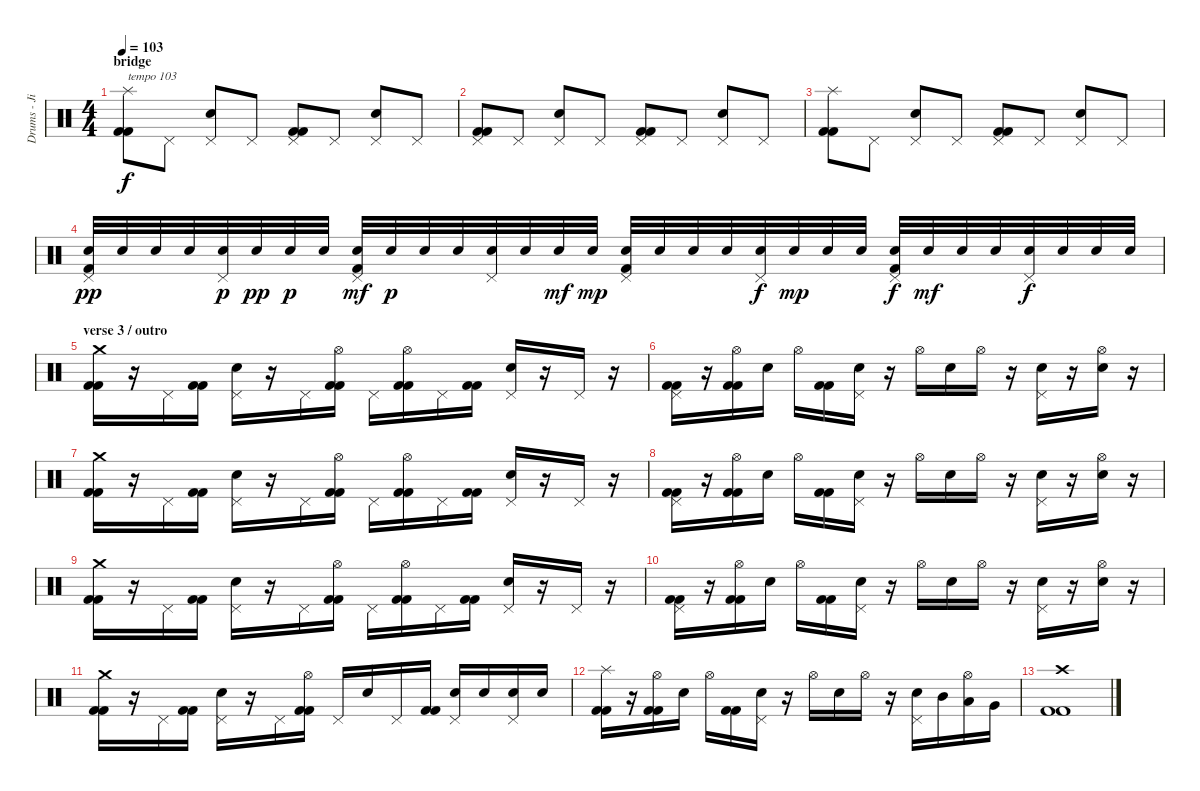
\track ("Drums - Jimmy" "Drums - Ji") {instrument percussion}
\staff {score}
\articulation defaults
\ts (4 4)
\section ("" "bridge")
\tempo 103
\clef neutral
\ks c
("Splash (hit)" "Kick (hit) 2" "Kick (hit) 2").8{txt "tempo 103" dy f} "Pedal Hi-Hat (hit)".8 ("Pedal Hi-Hat (hit)" "Electric Snare (hit)").8 "Pedal Hi-Hat (hit)".8 ("Pedal Hi-Hat (hit)" "Kick (hit) 2" "Kick (hit) 2").8 "Pedal Hi-Hat (hit)".8 ("Pedal Hi-Hat (hit)" "Electric Snare (hit)").8 "Pedal Hi-Hat (hit)".8 |
("Pedal Hi-Hat (hit)" "Kick (hit) 2" "Kick (hit) 2").8 "Pedal Hi-Hat (hit)".8 ("Pedal Hi-Hat (hit)" "Electric Snare (hit)").8 "Pedal Hi-Hat (hit)".8 ("Pedal Hi-Hat (hit)" "Kick (hit) 2" "Kick (hit) 2").8 "Pedal Hi-Hat (hit)".8 ("Pedal Hi-Hat (hit)" "Electric Snare (hit)").8 "Pedal Hi-Hat (hit)".8 |
("Splash (hit)" "Kick (hit) 2" "Kick (hit) 2").8 "Pedal Hi-Hat (hit)".8 ("Pedal Hi-Hat (hit)" "Electric Snare (hit)").8 "Pedal Hi-Hat (hit)".8 ("Pedal Hi-Hat (hit)" "Kick (hit) 2" "Kick (hit) 2").8 "Pedal Hi-Hat (hit)".8 ("Pedal Hi-Hat (hit)" "Electric Snare (hit)").8 "Pedal Hi-Hat (hit)".8 |
("Pedal Hi-Hat (hit)" "Electric Snare (hit)" "Kick (hit) 2").32{dy pp} "Electric Snare (hit)".32 "Electric Snare (hit)".32 "Electric Snare (hit)".32 ("Pedal Hi-Hat (hit)" "Electric Snare (hit)").32{dy p} "Electric Snare (hit)".32{dy pp} "Electric Snare (hit)".32{dy p} "Electric Snare (hit)".32 ("Pedal Hi-Hat (hit)" "Electric Snare (hit)" "Kick (hit) 2").32{dy mf} "Electric Snare (hit)".32{dy p} "Electric Snare (hit)".32 "Electric Snare (hit)".32 ("Pedal Hi-Hat (hit)" "Electric Snare (hit)").32 "Electric Snare (hit)".32 "Electric Snare (hit)".32{dy mf} "Electric Snare (hit)".32{dy mp} ("Pedal Hi-Hat (hit)" "Electric Snare (hit)" "Kick (hit) 2").32 "Electric Snare (hit)".32 "Electric Snare (hit)".32 "Electric Snare (hit)".32 ("Pedal Hi-Hat (hit)" "Electric Snare (hit)").32{dy f} "Electric Snare (hit)".32{dy mp} "Electric Snare (hit)".32 "Electric Snare (hit)".32 ("Pedal Hi-Hat (hit)" "Electric Snare (hit)" "Kick (hit) 2").32{dy f} "Electric Snare (hit)".32{dy mf} "Electric Snare (hit)".32 "Electric Snare (hit)".32 ("Pedal Hi-Hat (hit)" "Electric Snare (hit)").32{dy f} "Electric Snare (hit)".32 "Electric Snare (hit)".32 "Electric Snare (hit)".32 |
\section ("" "verse 3 / outro")
("Crash medium (hit)" "Kick (hit) 2" "Kick (hit) 2").16 r.16 "Pedal Hi-Hat (hit)".16 ("Kick (hit) 2" "Kick (hit) 2").16 ("Pedal Hi-Hat (hit)" "Electric Snare (hit)").16 r.16 "Pedal Hi-Hat (hit)".16 ("Hi-Hat (open)" "Kick (hit) 2" "Kick (hit) 2").16 "Pedal Hi-Hat (hit)".16 ("Hi-Hat (open)" "Kick (hit) 2" "Kick (hit) 2").16 "Pedal Hi-Hat (hit)".16 ("Kick (hit) 2" "Kick (hit) 2").16 ("Pedal Hi-Hat (hit)" "Electric Snare (hit)").16 r.16 "Pedal Hi-Hat (hit)".16 r.16 |
("Pedal Hi-Hat (hit)" "Kick (hit) 2" "Kick (hit) 2").16 r.16 ("Hi-Hat (open)" "Kick (hit) 2" "Kick (hit) 2").16 "Electric Snare (hit)".16 "Hi-Hat (open)".16 ("Kick (hit) 2" "Kick (hit) 2").16 ("Pedal Hi-Hat (hit)" "Electric Snare (hit)").16 r.16 "Hi-Hat (open)".16 "Electric Snare (hit)".16 "Hi-Hat (open)".16 r.16 ("Pedal Hi-Hat (hit)" "Electric Snare (hit)").16 r.16 ("Hi-Hat (open)" "Electric Snare (hit)").16 r.16 |
("Crash medium (hit)" "Kick (hit) 2" "Kick (hit) 2").16 r.16 "Pedal Hi-Hat (hit)".16 ("Kick (hit) 2" "Kick (hit) 2").16 ("Pedal Hi-Hat (hit)" "Electric Snare (hit)").16 r.16 "Pedal Hi-Hat (hit)".16 ("Hi-Hat (open)" "Kick (hit) 2" "Kick (hit) 2").16 "Pedal Hi-Hat (hit)".16 ("Hi-Hat (open)" "Kick (hit) 2" "Kick (hit) 2").16 "Pedal Hi-Hat (hit)".16 ("Kick (hit) 2" "Kick (hit) 2").16 ("Pedal Hi-Hat (hit)" "Electric Snare (hit)").16 r.16 "Pedal Hi-Hat (hit)".16 r.16 |
("Pedal Hi-Hat (hit)" "Kick (hit) 2" "Kick (hit) 2").16 r.16 ("Hi-Hat (open)" "Kick (hit) 2" "Kick (hit) 2").16 "Electric Snare (hit)".16 "Hi-Hat (open)".16 ("Kick (hit) 2" "Kick (hit) 2").16 ("Pedal Hi-Hat (hit)" "Electric Snare (hit)").16 r.16 "Hi-Hat (open)".16 "Electric Snare (hit)".16 "Hi-Hat (open)".16 r.16 ("Pedal Hi-Hat (hit)" "Electric Snare (hit)").16 r.16 ("Hi-Hat (open)" "Electric Snare (hit)").16 r.16 |
("Crash medium (hit)" "Kick (hit) 2" "Kick (hit) 2").16 r.16 "Pedal Hi-Hat (hit)".16 ("Kick (hit) 2" "Kick (hit) 2").16 ("Pedal Hi-Hat (hit)" "Electric Snare (hit)").16 r.16 "Pedal Hi-Hat (hit)".16 ("Hi-Hat (open)" "Kick (hit) 2" "Kick (hit) 2").16 "Pedal Hi-Hat (hit)".16 ("Hi-Hat (open)" "Kick (hit) 2" "Kick (hit) 2").16 "Pedal Hi-Hat (hit)".16 ("Kick (hit) 2" "Kick (hit) 2").16 ("Pedal Hi-Hat (hit)" "Electric Snare (hit)").16 r.16 "Pedal Hi-Hat (hit)".16 r.16 |
("Pedal Hi-Hat (hit)" "Kick (hit) 2" "Kick (hit) 2").16 r.16 ("Hi-Hat (open)" "Kick (hit) 2" "Kick (hit) 2").16 "Electric Snare (hit)".16 "Hi-Hat (open)".16 ("Kick (hit) 2" "Kick (hit) 2").16 ("Pedal Hi-Hat (hit)" "Electric Snare (hit)").16 r.16 "Hi-Hat (open)".16 "Electric Snare (hit)".16 "Hi-Hat (open)".16 r.16 ("Pedal Hi-Hat (hit)" "Electric Snare (hit)").16 r.16 ("Hi-Hat (open)" "Electric Snare (hit)").16 r.16 |
("Crash medium (hit)" "Kick (hit) 2" "Kick (hit) 2").16 r.16 "Pedal Hi-Hat (hit)".16 ("Kick (hit) 2" "Kick (hit) 2").16 ("Pedal Hi-Hat (hit)" "Electric Snare (hit)").16 r.16 "Pedal Hi-Hat (hit)".16 ("Hi-Hat (open)" "Kick (hit) 2" "Kick (hit) 2").16 "Pedal Hi-Hat (hit)".16 "Electric Snare (hit)".16 "Pedal Hi-Hat (hit)".16 ("Kick (hit) 2" "Kick (hit) 2").16 ("Pedal Hi-Hat (hit)" "Electric Snare (hit)").16 "Electric Snare (hit)".16 ("Pedal Hi-Hat (hit)" "Electric Snare (hit)").16 "Electric Snare (hit)".16 |
("Splash (hit)" "Kick (hit) 2" "Kick (hit) 2").16 r.16 ("Hi-Hat (open)" "Kick (hit) 2" "Kick (hit) 2").16 "Electric Snare (hit)".16 "Hi-Hat (open)".16 ("Kick (hit) 2" "Kick (hit) 2").16 ("Pedal Hi-Hat (hit)" "Electric Snare (hit)").16 r.16 "Hi-Hat (open)".16 "Electric Snare (hit)".16 "Hi-Hat (open)".16 r.16 ("Pedal Hi-Hat (hit)" "Electric Snare (hit)").16 "Mid Tom (hit)".16 ("Hi-Hat (open)" "Low Tom (hit)").16 "Very Low Tom (hit)".16 |
("Crash high (hit)" "Kick (hit) 2" "Kick (hit) 2").1
